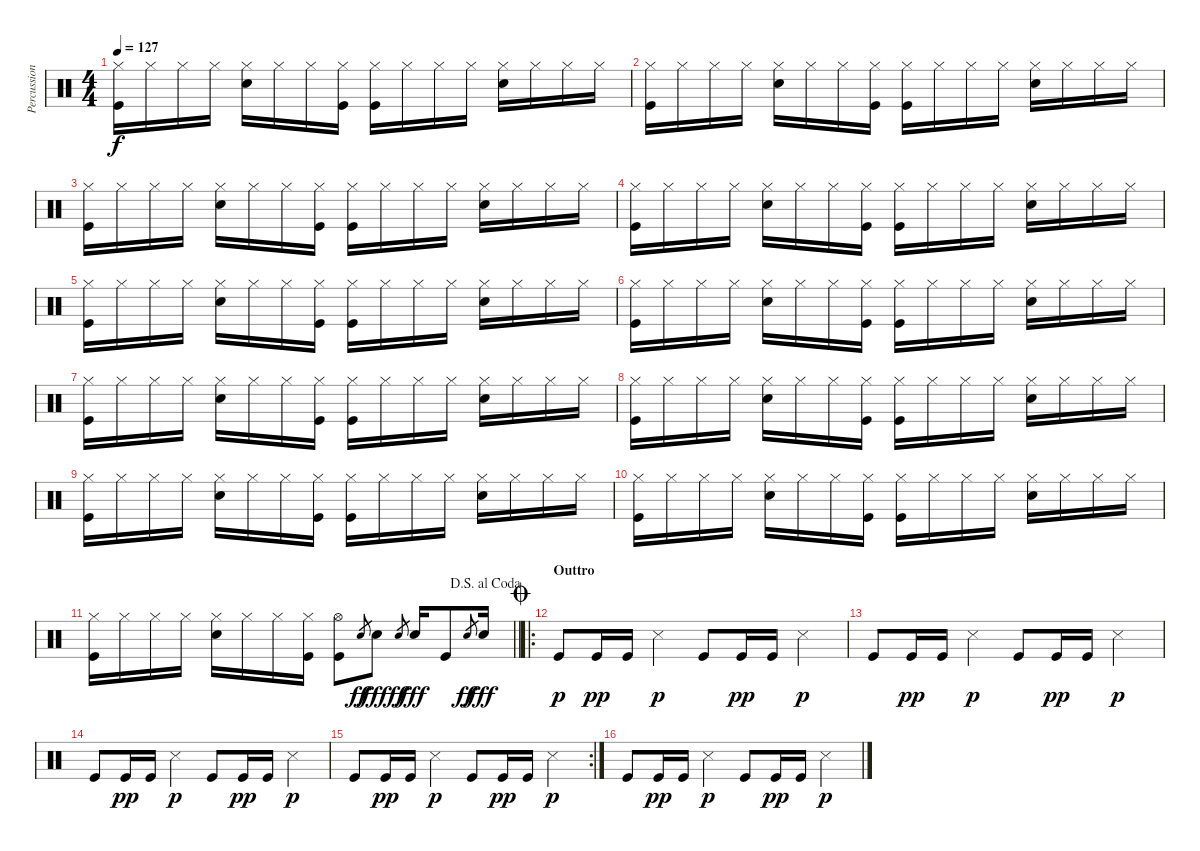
\track ("Percussion" "Percussion") {instrument percussion}
\staff {score}
\articulation defaults
\ts (4 4)
\tempo 127
\clef neutral
\ks c
("Hi-Hat (closed)" "Kick (hit)").16{dy f} "Hi-Hat (closed)".16 "Hi-Hat (closed)".16 "Hi-Hat (closed)".16 ("Hi-Hat (closed)" "Snare (hit) 2").16 "Hi-Hat (closed)".16 "Hi-Hat (closed)".16 ("Hi-Hat (closed)" "Kick (hit)").16 ("Hi-Hat (closed)" "Kick (hit)").16 "Hi-Hat (closed)".16 "Hi-Hat (closed)".16 "Hi-Hat (closed)".16 ("Hi-Hat (closed)" "Snare (hit) 2").16 "Hi-Hat (closed)".16 "Hi-Hat (closed)".16 "Hi-Hat (closed)".16 |
("Hi-Hat (closed)" "Kick (hit)").16 "Hi-Hat (closed)".16 "Hi-Hat (closed)".16 "Hi-Hat (closed)".16 ("Hi-Hat (closed)" "Snare (hit) 2").16 "Hi-Hat (closed)".16 "Hi-Hat (closed)".16 ("Hi-Hat (closed)" "Kick (hit)").16 ("Hi-Hat (closed)" "Kick (hit)").16 "Hi-Hat (closed)".16 "Hi-Hat (closed)".16 "Hi-Hat (closed)".16 ("Hi-Hat (closed)" "Snare (hit) 2").16 "Hi-Hat (closed)".16 "Hi-Hat (closed)".16 "Hi-Hat (closed)".16 |
("Hi-Hat (closed)" "Kick (hit)").16 "Hi-Hat (closed)".16 "Hi-Hat (closed)".16 "Hi-Hat (closed)".16 ("Hi-Hat (closed)" "Snare (hit) 2").16 "Hi-Hat (closed)".16 "Hi-Hat (closed)".16 ("Hi-Hat (closed)" "Kick (hit)").16 ("Hi-Hat (closed)" "Kick (hit)").16 "Hi-Hat (closed)".16 "Hi-Hat (closed)".16 "Hi-Hat (closed)".16 ("Hi-Hat (closed)" "Snare (hit) 2").16 "Hi-Hat (closed)".16 "Hi-Hat (closed)".16 "Hi-Hat (closed)".16 |
("Hi-Hat (closed)" "Kick (hit)").16 "Hi-Hat (closed)".16 "Hi-Hat (closed)".16 "Hi-Hat (closed)".16 ("Hi-Hat (closed)" "Snare (hit) 2").16 "Hi-Hat (closed)".16 "Hi-Hat (closed)".16 ("Hi-Hat (closed)" "Kick (hit)").16 ("Hi-Hat (closed)" "Kick (hit)").16 "Hi-Hat (closed)".16 "Hi-Hat (closed)".16 "Hi-Hat (closed)".16 ("Hi-Hat (closed)" "Snare (hit) 2").16 "Hi-Hat (closed)".16 "Hi-Hat (closed)".16 "Hi-Hat (closed)".16 |
("Hi-Hat (closed)" "Kick (hit)").16 "Hi-Hat (closed)".16 "Hi-Hat (closed)".16 "Hi-Hat (closed)".16 ("Hi-Hat (closed)" "Snare (hit) 2").16 "Hi-Hat (closed)".16 "Hi-Hat (closed)".16 ("Hi-Hat (closed)" "Kick (hit)").16 ("Hi-Hat (closed)" "Kick (hit)").16 "Hi-Hat (closed)".16 "Hi-Hat (closed)".16 "Hi-Hat (closed)".16 ("Hi-Hat (closed)" "Snare (hit) 2").16 "Hi-Hat (closed)".16 "Hi-Hat (closed)".16 "Hi-Hat (closed)".16 |
("Hi-Hat (closed)" "Kick (hit)").16 "Hi-Hat (closed)".16 "Hi-Hat (closed)".16 "Hi-Hat (closed)".16 ("Hi-Hat (closed)" "Snare (hit) 2").16 "Hi-Hat (closed)".16 "Hi-Hat (closed)".16 ("Hi-Hat (closed)" "Kick (hit)").16 ("Hi-Hat (closed)" "Kick (hit)").16 "Hi-Hat (closed)".16 "Hi-Hat (closed)".16 "Hi-Hat (closed)".16 ("Hi-Hat (closed)" "Snare (hit) 2").16 "Hi-Hat (closed)".16 "Hi-Hat (closed)".16 "Hi-Hat (closed)".16 |
("Hi-Hat (closed)" "Kick (hit)").16 "Hi-Hat (closed)".16 "Hi-Hat (closed)".16 "Hi-Hat (closed)".16 ("Hi-Hat (closed)" "Snare (hit) 2").16 "Hi-Hat (closed)".16 "Hi-Hat (closed)".16 ("Hi-Hat (closed)" "Kick (hit)").16 ("Hi-Hat (closed)" "Kick (hit)").16 "Hi-Hat (closed)".16 "Hi-Hat (closed)".16 "Hi-Hat (closed)".16 ("Hi-Hat (closed)" "Snare (hit) 2").16 "Hi-Hat (closed)".16 "Hi-Hat (closed)".16 "Hi-Hat (closed)".16 |
("Hi-Hat (closed)" "Kick (hit)").16 "Hi-Hat (closed)".16 "Hi-Hat (closed)".16 "Hi-Hat (closed)".16 ("Hi-Hat (closed)" "Snare (hit) 2").16 "Hi-Hat (closed)".16 "Hi-Hat (closed)".16 ("Hi-Hat (closed)" "Kick (hit)").16 ("Hi-Hat (closed)" "Kick (hit)").16 "Hi-Hat (closed)".16 "Hi-Hat (closed)".16 "Hi-Hat (closed)".16 ("Hi-Hat (closed)" "Snare (hit) 2").16 "Hi-Hat (closed)".16 "Hi-Hat (closed)".16 "Hi-Hat (closed)".16 |
("Hi-Hat (closed)" "Kick (hit)").16 "Hi-Hat (closed)".16 "Hi-Hat (closed)".16 "Hi-Hat (closed)".16 ("Hi-Hat (closed)" "Snare (hit) 2").16 "Hi-Hat (closed)".16 "Hi-Hat (closed)".16 ("Hi-Hat (closed)" "Kick (hit)").16 ("Hi-Hat (closed)" "Kick (hit)").16 "Hi-Hat (closed)".16 "Hi-Hat (closed)".16 "Hi-Hat (closed)".16 ("Hi-Hat (closed)" "Snare (hit) 2").16 "Hi-Hat (closed)".16 "Hi-Hat (closed)".16 "Hi-Hat (closed)".16 |
("Hi-Hat (closed)" "Kick (hit)").16 "Hi-Hat (closed)".16 "Hi-Hat (closed)".16 "Hi-Hat (closed)".16 ("Hi-Hat (closed)" "Snare (hit) 2").16 "Hi-Hat (closed)".16 "Hi-Hat (closed)".16 ("Hi-Hat (closed)" "Kick (hit)").16 ("Hi-Hat (closed)" "Kick (hit)").16 "Hi-Hat (closed)".16 "Hi-Hat (closed)".16 "Hi-Hat (closed)".16 ("Hi-Hat (closed)" "Snare (hit) 2").16 "Hi-Hat (closed)".16 "Hi-Hat (closed)".16 "Hi-Hat (closed)".16 |
\jump dalsegnoalcoda
\barLineRight lightlight
("Hi-Hat (closed)" "Kick (hit)").16 "Hi-Hat (closed)".16 "Hi-Hat (closed)".16 "Hi-Hat (closed)".16 ("Hi-Hat (closed)" "Snare (hit) 2").16 "Hi-Hat (closed)".16 "Hi-Hat (closed)".16 ("Hi-Hat (closed)" "Kick (hit)").16 ("Hi-Hat (open)" "Kick (hit)").8 "Snare (hit) 2".8{gr dy ff} "Snare (hit) 2".8{dy fff} "Snare (hit) 2".8{gr dy ff} "Snare (hit) 2".16{dy fff} "Kick (hit)".8 "Snare (hit) 2".8{gr dy ff} "Snare (hit) 2".16{dy fff} |
\ro
\section ("" "Outtro")
\jump coda "Kick (hit)".8{dy p} "Kick (hit)".16{dy pp} "Kick (hit)".16 "Snare (side stick) 3".4{dy p} "Kick (hit)".8 "Kick (hit)".16{dy pp} "Kick (hit)".16 "Snare (side stick) 3".4{dy p}
|
"Kick (hit)".8 "Kick (hit)".16{dy pp} "Kick (hit)".16 "Snare (side stick) 3".4{dy p} "Kick (hit)".8 "Kick (hit)".16{dy pp} "Kick (hit)".16 "Snare (side stick) 3".4{dy p} |
"Kick (hit)".8 "Kick (hit)".16{dy pp} "Kick (hit)".16 "Snare (side stick) 3".4{dy p} "Kick (hit)".8 "Kick (hit)".16{dy pp} "Kick (hit)".16 "Snare (side stick) 3".4{dy p} |
\rc 2 "Kick (hit)".8 "Kick (hit)".16{dy pp} "Kick (hit)".16 "Snare (side stick) 3".4{dy p} "Kick (hit)".8 "Kick (hit)".16{dy pp} "Kick (hit)".16 "Snare (side stick) 3".4{dy p}
|
"Kick (hit)".8 "Kick (hit)".16{dy pp} "Kick (hit)".16 "Snare (side stick) 3".4{dy p} "Kick (hit)".8 "Kick (hit)".16{dy pp} "Kick (hit)".16 "Snare (side stick) 3".4{dy p}
